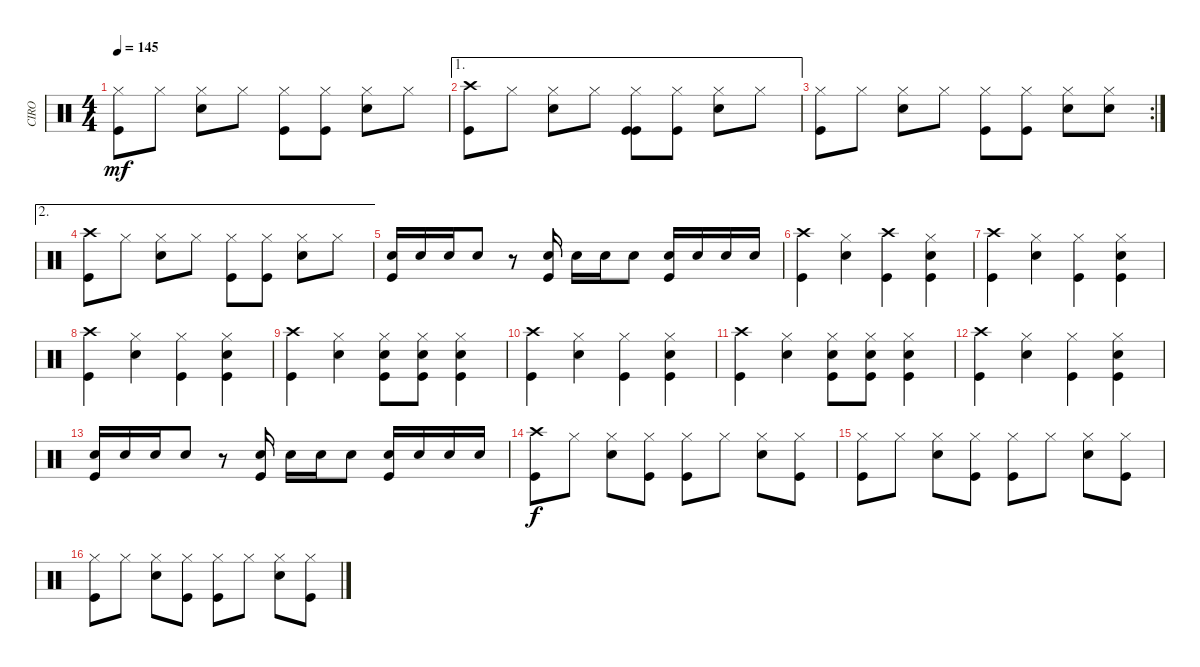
\track ("CIRO" "CIRO") {instrument percussion}
\staff {score}
\articulation defaults
\ts (4 4)
\tempo 145
\clef neutral
\ks c
("Hi-Hat (closed)" "Kick (hit)").8{dy mf} "Hi-Hat (closed)".8 ("Hi-Hat (closed)" "Snare (hit) 2").8 "Hi-Hat (closed)".8 ("Hi-Hat (closed)" "Kick (hit)").8 ("Hi-Hat (closed)" "Kick (hit)").8 ("Hi-Hat (closed)" "Snare (hit) 2").8 "Hi-Hat (closed)".8 |
\ae 1
("Crash high (hit)" "Kick (hit)").8 "Hi-Hat (closed)".8 ("Hi-Hat (closed)" "Snare (hit) 2").8 "Hi-Hat (closed)".8 ("Hi-Hat (closed)" "Kick (hit)" "Kick (hit)").8 ("Hi-Hat (closed)" "Kick (hit)").8 ("Hi-Hat (closed)" "Snare (hit) 2").8 "Hi-Hat (closed)".8 |
\rc 2
("Hi-Hat (closed)" "Kick (hit)").8 "Hi-Hat (closed)".8 ("Hi-Hat (closed)" "Snare (hit) 2").8 "Hi-Hat (closed)".8 ("Hi-Hat (closed)" "Kick (hit)").8 ("Hi-Hat (closed)" "Kick (hit)").8 ("Hi-Hat (closed)" "Snare (hit) 2").8 ("Hi-Hat (closed)" "Snare (hit) 2").8 |
\ae 2
("Crash high (hit)" "Kick (hit)").8 "Hi-Hat (closed)".8 ("Hi-Hat (closed)" "Snare (hit) 2").8 "Hi-Hat (closed)".8 ("Hi-Hat (closed)" "Kick (hit)").8 ("Hi-Hat (closed)" "Kick (hit)").8 ("Hi-Hat (closed)" "Snare (hit) 2").8 "Hi-Hat (closed)".8 |
("Snare (hit) 2" "Kick (hit)").16 "Snare (hit) 2".16 "Snare (hit) 2".16 "Snare (hit) 2".8 r.8 ("Snare (hit) 2" "Kick (hit)").16 "Snare (hit) 2".16 "Snare (hit) 2".16 "Snare (hit) 2".8 ("Snare (hit) 2" "Kick (hit)").16 "Snare (hit) 2".16 "Snare (hit) 2".16 "Snare (hit) 2".16 |
("Crash high (hit)" "Kick (hit)").4 ("Hi-Hat (closed)" "Snare (hit) 2").4 ("Crash high (hit)" "Kick (hit)").4 ("Hi-Hat (closed)" "Snare (hit) 2" "Kick (hit)").4 |
("Crash high (hit)" "Kick (hit)").4 ("Hi-Hat (closed)" "Snare (hit) 2").4 ("Hi-Hat (closed)" "Kick (hit)").4 ("Hi-Hat (closed)" "Snare (hit) 2" "Kick (hit)").4 |
("Crash high (hit)" "Kick (hit)").4 ("Hi-Hat (closed)" "Snare (hit) 2").4 ("Hi-Hat (closed)" "Kick (hit)").4 ("Hi-Hat (closed)" "Snare (hit) 2" "Kick (hit)").4 |
("Crash high (hit)" "Kick (hit)").4 ("Hi-Hat (closed)" "Snare (hit) 2").4 ("Hi-Hat (closed)" "Snare (hit) 2" "Kick (hit)").8 ("Hi-Hat (closed)" "Snare (hit) 2" "Kick (hit)").8 ("Hi-Hat (closed)" "Snare (hit) 2" "Kick (hit)").4 |
("Crash high (hit)" "Kick (hit)").4 ("Hi-Hat (closed)" "Snare (hit) 2").4 ("Hi-Hat (closed)" "Kick (hit)").4 ("Hi-Hat (closed)" "Snare (hit) 2" "Kick (hit)").4 |
("Crash high (hit)" "Kick (hit)").4 ("Hi-Hat (closed)" "Snare (hit) 2").4 ("Hi-Hat (closed)" "Snare (hit) 2" "Kick (hit)").8 ("Hi-Hat (closed)" "Snare (hit) 2" "Kick (hit)").8 ("Hi-Hat (closed)" "Snare (hit) 2" "Kick (hit)").4 |
("Crash high (hit)" "Kick (hit)").4 ("Hi-Hat (closed)" "Snare (hit) 2").4 ("Hi-Hat (closed)" "Kick (hit)").4 ("Hi-Hat (closed)" "Snare (hit) 2" "Kick (hit)").4 |
("Snare (hit) 2" "Kick (hit)").16 "Snare (hit) 2".16 "Snare (hit) 2".16 "Snare (hit) 2".8 r.8 ("Snare (hit) 2" "Kick (hit)").16 "Snare (hit) 2".16 "Snare (hit) 2".16 "Snare (hit) 2".8 ("Snare (hit) 2" "Kick (hit)").16 "Snare (hit) 2".16 "Snare (hit) 2".16 "Snare (hit) 2".16 |
("Crash high (hit)" "Kick (hit)").8{dy f} "Hi-Hat (closed)".8 ("Hi-Hat (closed)" "Snare (hit) 2").8 ("Hi-Hat (closed)" "Kick (hit)").8 ("Hi-Hat (closed)" "Kick (hit)").8 "Hi-Hat (closed)".8 ("Hi-Hat (closed)" "Snare (hit) 2").8 ("Hi-Hat (closed)" "Kick (hit)").8 |
("Hi-Hat (closed)" "Kick (hit)").8 "Hi-Hat (closed)".8 ("Hi-Hat (closed)" "Snare (hit) 2").8 ("Hi-Hat (closed)" "Kick (hit)").8 ("Hi-Hat (closed)" "Kick (hit)").8 "Hi-Hat (closed)".8 ("Hi-Hat (closed)" "Snare (hit) 2").8 ("Hi-Hat (closed)" "Kick (hit)").8 |
("Hi-Hat (closed)" "Kick (hit)").8 "Hi-Hat (closed)".8 ("Hi-Hat (closed)" "Snare (hit) 2").8 ("Hi-Hat (closed)" "Kick (hit)").8 ("Hi-Hat (closed)" "Kick (hit)").8 "Hi-Hat (closed)".8 ("Hi-Hat (closed)" "Snare (hit) 2").8 ("Hi-Hat (closed)" "Kick (hit)").8
